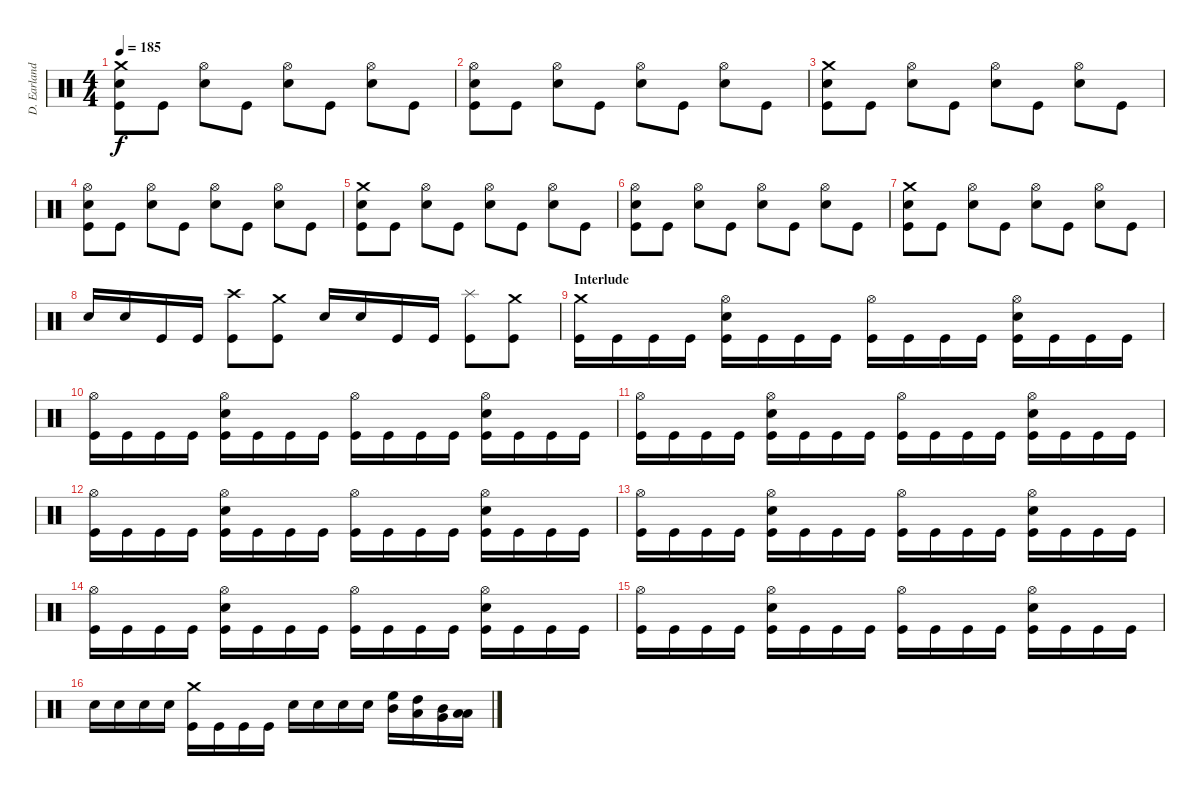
\track ("D. Earlanddson" "D. Earland") {instrument percussion}
\staff {score}
\articulation defaults
\ts (4 4)
\tempo 185
\clef neutral
\ks c
("Crash medium (hit)" "Electric Snare (hit)" "Kick (hit)").8{dy f} "Kick (hit)".8 ("Hi-Hat (open)" "Electric Snare (hit)").8 "Kick (hit)".8 ("Hi-Hat (open)" "Electric Snare (hit)").8 "Kick (hit)".8 ("Hi-Hat (open)" "Electric Snare (hit)").8 "Kick (hit)".8 |
("Hi-Hat (open)" "Electric Snare (hit)" "Kick (hit)").8 "Kick (hit)".8 ("Hi-Hat (open)" "Electric Snare (hit)").8 "Kick (hit)".8 ("Hi-Hat (open)" "Electric Snare (hit)").8 "Kick (hit)".8 ("Hi-Hat (open)" "Electric Snare (hit)").8 "Kick (hit)".8 |
("Crash medium (hit)" "Electric Snare (hit)" "Kick (hit)").8 "Kick (hit)".8 ("Hi-Hat (open)" "Electric Snare (hit)").8 "Kick (hit)".8 ("Hi-Hat (open)" "Electric Snare (hit)").8 "Kick (hit)".8 ("Hi-Hat (open)" "Electric Snare (hit)").8 "Kick (hit)".8 |
("Hi-Hat (open)" "Electric Snare (hit)" "Kick (hit)").8 "Kick (hit)".8 ("Hi-Hat (open)" "Electric Snare (hit)").8 "Kick (hit)".8 ("Hi-Hat (open)" "Electric Snare (hit)").8 "Kick (hit)".8 ("Hi-Hat (open)" "Electric Snare (hit)").8 "Kick (hit)".8 |
("Crash medium (hit)" "Electric Snare (hit)" "Kick (hit)").8 "Kick (hit)".8 ("Hi-Hat (open)" "Electric Snare (hit)").8 "Kick (hit)".8 ("Hi-Hat (open)" "Electric Snare (hit)").8 "Kick (hit)".8 ("Hi-Hat (open)" "Electric Snare (hit)").8 "Kick (hit)".8 |
("Hi-Hat (open)" "Electric Snare (hit)" "Kick (hit)").8 "Kick (hit)".8 ("Hi-Hat (open)" "Electric Snare (hit)").8 "Kick (hit)".8 ("Hi-Hat (open)" "Electric Snare (hit)").8 "Kick (hit)".8 ("Hi-Hat (open)" "Electric Snare (hit)").8 "Kick (hit)".8 |
("Crash medium (hit)" "Electric Snare (hit)" "Kick (hit)").8 "Kick (hit)".8 ("Hi-Hat (open)" "Electric Snare (hit)").8 "Kick (hit)".8 ("Hi-Hat (open)" "Electric Snare (hit)").8 "Kick (hit)".8 ("Hi-Hat (open)" "Electric Snare (hit)").8 "Kick (hit)".8 |
"Electric Snare (hit)".16 "Electric Snare (hit)".16 "Kick (hit)".16 "Kick (hit)".16 ("Crash high (hit)" "Kick (hit)").8 ("Crash medium (hit)" "Kick (hit)").8 "Electric Snare (hit)".16 "Electric Snare (hit)".16 "Kick (hit)".16 "Kick (hit)".16 ("Splash (hit)" "Kick (hit)").8 ("Crash medium (hit)" "Kick (hit)").8 |
\section ("" "Interlude")
("Crash medium (hit)" "Kick (hit)").16 "Kick (hit)".16 "Kick (hit)".16 "Kick (hit)".16 ("Hi-Hat (open)" "Electric Snare (hit)" "Kick (hit)").16 "Kick (hit)".16 "Kick (hit)".16 "Kick (hit)".16 ("Hi-Hat (open)" "Kick (hit)").16 "Kick (hit)".16 "Kick (hit)".16 "Kick (hit)".16 ("Hi-Hat (open)" "Electric Snare (hit)" "Kick (hit)").16 "Kick (hit)".16 "Kick (hit)".16 "Kick (hit)".16 |
("Hi-Hat (open)" "Kick (hit)").16 "Kick (hit)".16 "Kick (hit)".16 "Kick (hit)".16 ("Hi-Hat (open)" "Electric Snare (hit)" "Kick (hit)").16 "Kick (hit)".16 "Kick (hit)".16 "Kick (hit)".16 ("Hi-Hat (open)" "Kick (hit)").16 "Kick (hit)".16 "Kick (hit)".16 "Kick (hit)".16 ("Hi-Hat (open)" "Electric Snare (hit)" "Kick (hit)").16 "Kick (hit)".16 "Kick (hit)".16 "Kick (hit)".16 |
("Hi-Hat (open)" "Kick (hit)").16 "Kick (hit)".16 "Kick (hit)".16 "Kick (hit)".16 ("Hi-Hat (open)" "Electric Snare (hit)" "Kick (hit)").16 "Kick (hit)".16 "Kick (hit)".16 "Kick (hit)".16 ("Hi-Hat (open)" "Kick (hit)").16 "Kick (hit)".16 "Kick (hit)".16 "Kick (hit)".16 ("Hi-Hat (open)" "Electric Snare (hit)" "Kick (hit)").16 "Kick (hit)".16 "Kick (hit)".16 "Kick (hit)".16 |
("Hi-Hat (open)" "Kick (hit)").16 "Kick (hit)".16 "Kick (hit)".16 "Kick (hit)".16 ("Hi-Hat (open)" "Electric Snare (hit)" "Kick (hit)").16 "Kick (hit)".16 "Kick (hit)".16 "Kick (hit)".16 ("Hi-Hat (open)" "Kick (hit)").16 "Kick (hit)".16 "Kick (hit)".16 "Kick (hit)".16 ("Hi-Hat (open)" "Electric Snare (hit)" "Kick (hit)").16 "Kick (hit)".16 "Kick (hit)".16 "Kick (hit)".16 |
("Hi-Hat (open)" "Kick (hit)").16 "Kick (hit)".16 "Kick (hit)".16 "Kick (hit)".16 ("Hi-Hat (open)" "Electric Snare (hit)" "Kick (hit)").16 "Kick (hit)".16 "Kick (hit)".16 "Kick (hit)".16 ("Hi-Hat (open)" "Kick (hit)").16 "Kick (hit)".16 "Kick (hit)".16 "Kick (hit)".16 ("Hi-Hat (open)" "Electric Snare (hit)" "Kick (hit)").16 "Kick (hit)".16 "Kick (hit)".16 "Kick (hit)".16 |
("Hi-Hat (open)" "Kick (hit)").16 "Kick (hit)".16 "Kick (hit)".16 "Kick (hit)".16 ("Hi-Hat (open)" "Electric Snare (hit)" "Kick (hit)").16 "Kick (hit)".16 "Kick (hit)".16 "Kick (hit)".16 ("Hi-Hat (open)" "Kick (hit)").16 "Kick (hit)".16 "Kick (hit)".16 "Kick (hit)".16 ("Hi-Hat (open)" "Electric Snare (hit)" "Kick (hit)").16 "Kick (hit)".16 "Kick (hit)".16 "Kick (hit)".16 |
("Hi-Hat (open)" "Kick (hit)").16 "Kick (hit)".16 "Kick (hit)".16 "Kick (hit)".16 ("Hi-Hat (open)" "Electric Snare (hit)" "Kick (hit)").16 "Kick (hit)".16 "Kick (hit)".16 "Kick (hit)".16 ("Hi-Hat (open)" "Kick (hit)").16 "Kick (hit)".16 "Kick (hit)".16 "Kick (hit)".16 ("Hi-Hat (open)" "Electric Snare (hit)" "Kick (hit)").16 "Kick (hit)".16 "Kick (hit)".16 "Kick (hit)".16 |
"Electric Snare (hit)".16 "Electric Snare (hit)".16 "Electric Snare (hit)".16 "Electric Snare (hit)".16 ("Crash medium (hit)" "Kick (hit)").16 "Kick (hit)".16 "Kick (hit)".16 "Kick (hit)".16 "Electric Snare (hit)".16 "Electric Snare (hit)".16 "Electric Snare (hit)".16 "Electric Snare (hit)".16 ("High Floor Tom (hit)" "Mid Tom (hit)").16 ("High Tom (hit)" "Low Tom (hit)").16 ("Mid Tom (hit)" "Very Low Tom (hit)").16 ("Low Tom (hit)" "Low Floor Tom (hit)").16
